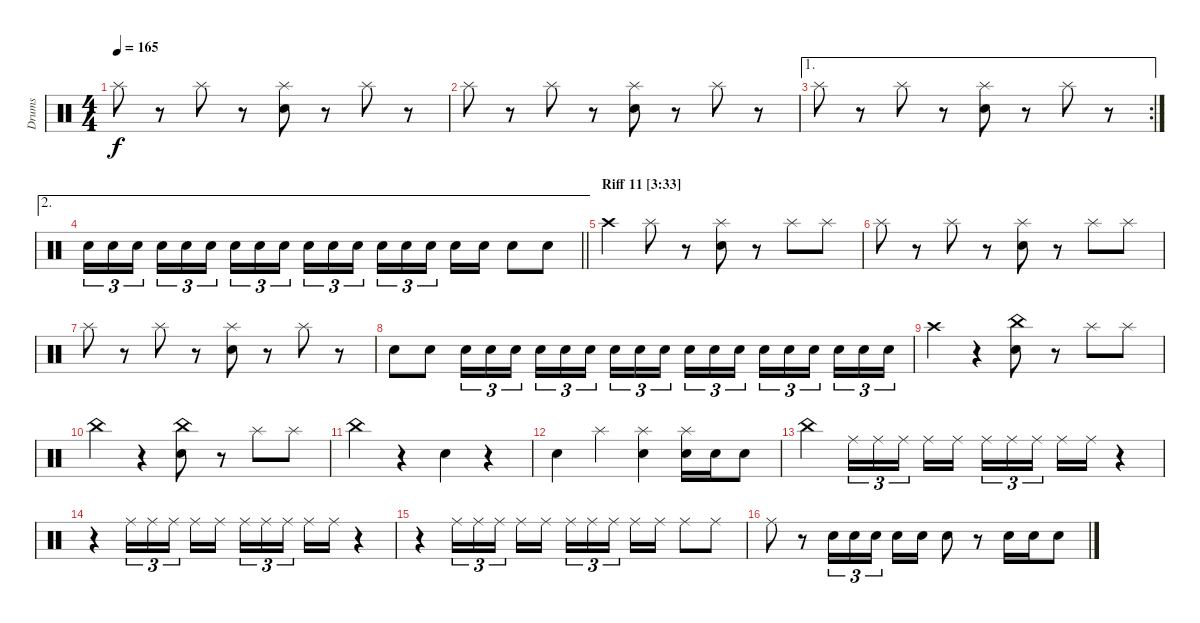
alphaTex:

\track ("Drums" "Drums") {instrument percussion}
\staff {score}
\articulation defaults
\ts (4 4)
\tempo 165
\clef neutral
\ks c "Splash (hit)".8{dy f}
r.8 "Splash (hit)".8 r.8 ("Splash (hit)" "Electric Snare (hit)").8 r.8 "Splash (hit)".8 r.8 |
"Splash (hit)".8 r.8 "Splash (hit)".8 r.8 ("Splash (hit)" "Electric Snare (hit)").8 r.8 "Splash (hit)".8 r.8 |
\ae 1
\rc 2 "Splash (hit)".8
r.8 "Splash (hit)".8 r.8 ("Splash (hit)" "Electric Snare (hit)").8 r.8 "Splash (hit)".8 r.8 |
\ae 2
\barLineRight lightlight "Electric Snare (hit)".16{tu (3 2)} "Electric Snare (hit)".16{tu (3 2)} "Electric Snare (hit)".16{tu (3 2) beam splitsecondary} "Electric Snare (hit)".16{tu (3 2)} "Electric Snare (hit)".16{tu (3 2)} "Electric Snare (hit)".16{tu (3 2)} "Electric Snare (hit)".16{tu (3 2)} "Electric Snare (hit)".16{tu (3 2)} "Electric Snare (hit)".16{tu (3 2) beam splitsecondary} "Electric Snare (hit)".16{tu (3 2)} "Electric Snare (hit)".16{tu (3 2)} "Electric Snare (hit)".16{tu (3 2)} "Electric Snare (hit)".16{tu (3 2)} "Electric Snare (hit)".16{tu (3 2)} "Electric Snare (hit)".16{tu (3 2) beam splitsecondary} "Electric Snare (hit)".16 "Electric Snare (hit)".16 "Electric Snare (hit)".8 "Electric Snare (hit)".8
|
\section ("" "Riff 11 [3:33]")
"Crash high (hit)".4 "Splash (hit)".8 r.8 ("Splash (hit)" "Electric Snare (hit)").8 r.8 "Splash (hit)".8 "Splash (hit)".8 |
"Splash (hit)".8 r.8 "Splash (hit)".8 r.8 ("Splash (hit)" "Electric Snare (hit)").8 r.8 "Splash (hit)".8 "Splash (hit)".8 |
"Splash (hit)".8 r.8 "Splash (hit)".8 r.8 ("Splash (hit)" "Electric Snare (hit)").8 r.8 "Splash (hit)".8 r.8 |
"Electric Snare (hit)".8 "Electric Snare (hit)".8 "Electric Snare (hit)".16{tu (3 2)} "Electric Snare (hit)".16{tu (3 2)} "Electric Snare (hit)".16{tu (3 2) beam splitsecondary} "Electric Snare (hit)".16{tu (3 2)} "Electric Snare (hit)".16{tu (3 2)} "Electric Snare (hit)".16{tu (3 2)} "Electric Snare (hit)".16{tu (3 2)} "Electric Snare (hit)".16{tu (3 2)} "Electric Snare (hit)".16{tu (3 2) beam splitsecondary} "Electric Snare (hit)".16{tu (3 2)} "Electric Snare (hit)".16{tu (3 2)} "Electric Snare (hit)".16{tu (3 2)} "Electric Snare (hit)".16{tu (3 2)} "Electric Snare (hit)".16{tu (3 2)} "Electric Snare (hit)".16{tu (3 2) beam splitsecondary} "Electric Snare (hit)".16{tu (3 2)} "Electric Snare (hit)".16{tu (3 2)} "Electric Snare (hit)".16{tu (3 2)} |
"Crash high (hit)".4 r.4 ("China (hit)" "Electric Snare (hit)").8 r.8 "Splash (hit)".8 "Splash (hit)".8 |
"China (hit)".4 r.4 ("China (hit)" "Electric Snare (hit)").8 r.8 "Splash (hit)".8 "Splash (hit)".8 |
"China (hit)".4 r.4 "Electric Snare (hit)".4 r.4 |
"Electric Snare (hit)".4 "Splash (hit)".4 ("Splash (hit)" "Electric Snare (hit)").4 ("Splash (hit)" "Electric Snare (hit)").16 "Electric Snare (hit)".16 "Electric Snare (hit)".8 |
"China (hit)".4 "Ride (middle)".16{tu (3 2)} "Ride (middle)".16{tu (3 2)} "Ride (middle)".16{tu (3 2) beam splitsecondary} "Ride (middle)".16 "Ride (middle)".16 "Ride (middle)".16{tu (3 2)} "Ride (middle)".16{tu (3 2)} "Ride (middle)".16{tu (3 2) beam splitsecondary} "Ride (middle)".16 "Ride (middle)".16 r.4 |
r.4 "Ride (middle)".16{tu (3 2)} "Ride (middle)".16{tu (3 2)} "Ride (middle)".16{tu (3 2) beam splitsecondary} "Ride (middle)".16 "Ride (middle)".16 "Ride (middle)".16{tu (3 2)} "Ride (middle)".16{tu (3 2)} "Ride (middle)".16{tu (3 2) beam splitsecondary} "Ride (middle)".16 "Ride (middle)".16 r.4 |
r.4 "Ride (middle)".16{tu (3 2)} "Ride (middle)".16{tu (3 2)} "Ride (middle)".16{tu (3 2) beam splitsecondary} "Ride (middle)".16 "Ride (middle)".16 "Ride (middle)".16{tu (3 2)} "Ride (middle)".16{tu (3 2)} "Ride (middle)".16{tu (3 2) beam splitsecondary} "Ride (middle)".16 "Ride (middle)".16 "Ride (middle)".8 "Ride (middle)".8 |
"Ride (middle)".8 r.8 "Electric Snare (hit)".16{tu (3 2)} "Electric Snare (hit)".16{tu (3 2)} "Electric Snare (hit)".16{tu (3 2) beam splitsecondary} "Electric Snare (hit)".16 "Electric Snare (hit)".16 "Electric Snare (hit)".8 r.8 "Electric Snare (hit)".16 "Electric Snare (hit)".16 "Electric Snare (hit)".8
